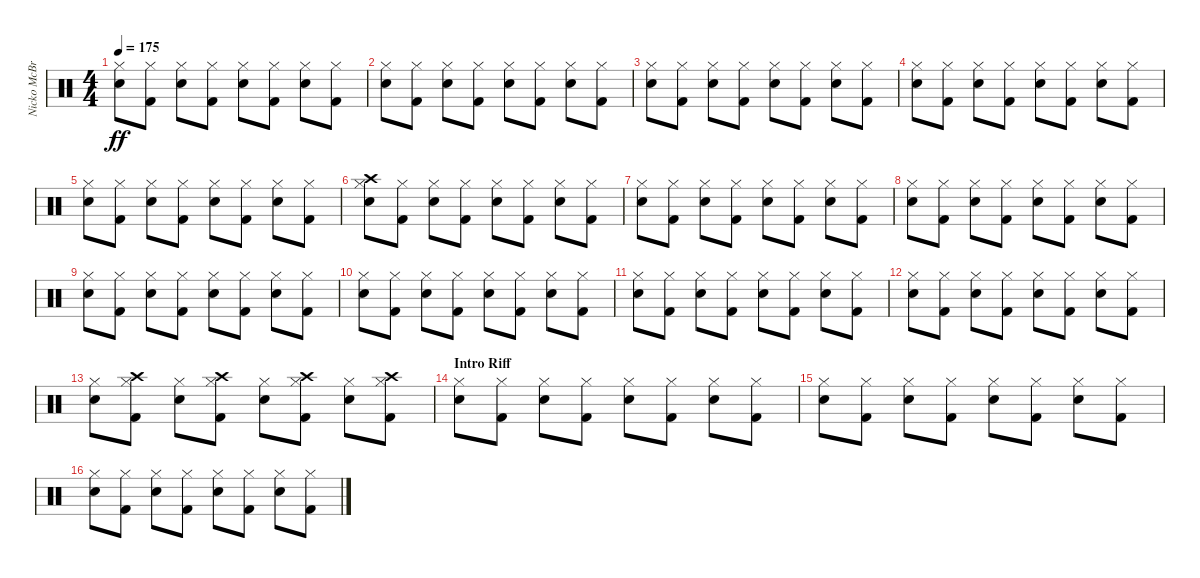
\track ("Nicko McBrain" "Nicko McBr") {instrument percussion}
\staff {score}
\articulation defaults
\ts (4 4)
\tempo 175
\clef neutral
\ks c
("Snare (hit) 2" "Hi-Hat (closed)").8{dy ff} ("Kick (hit) 2" "Hi-Hat (closed)").8 ("Snare (hit) 2" "Hi-Hat (closed)").8 ("Kick (hit) 2" "Hi-Hat (closed)").8 ("Snare (hit) 2" "Hi-Hat (closed)").8 ("Kick (hit) 2" "Hi-Hat (closed)").8 ("Snare (hit) 2" "Hi-Hat (closed)").8 ("Kick (hit) 2" "Hi-Hat (closed)").8 |
("Snare (hit) 2" "Hi-Hat (closed)").8 ("Kick (hit) 2" "Hi-Hat (closed)").8 ("Snare (hit) 2" "Hi-Hat (closed)").8 ("Kick (hit) 2" "Hi-Hat (closed)").8 ("Snare (hit) 2" "Hi-Hat (closed)").8 ("Kick (hit) 2" "Hi-Hat (closed)").8 ("Snare (hit) 2" "Hi-Hat (closed)").8 ("Kick (hit) 2" "Hi-Hat (closed)").8 |
("Snare (hit) 2" "Hi-Hat (closed)").8 ("Kick (hit) 2" "Hi-Hat (closed)").8 ("Snare (hit) 2" "Hi-Hat (closed)").8 ("Kick (hit) 2" "Hi-Hat (closed)").8 ("Snare (hit) 2" "Hi-Hat (closed)").8 ("Kick (hit) 2" "Hi-Hat (closed)").8 ("Snare (hit) 2" "Hi-Hat (closed)").8 ("Kick (hit) 2" "Hi-Hat (closed)").8 |
("Snare (hit) 2" "Hi-Hat (closed)").8 ("Kick (hit) 2" "Hi-Hat (closed)").8 ("Snare (hit) 2" "Hi-Hat (closed)").8 ("Kick (hit) 2" "Hi-Hat (closed)").8 ("Snare (hit) 2" "Hi-Hat (closed)").8 ("Kick (hit) 2" "Hi-Hat (closed)").8 ("Snare (hit) 2" "Hi-Hat (closed)").8 ("Kick (hit) 2" "Hi-Hat (closed)").8 |
("Snare (hit) 2" "Hi-Hat (closed)").8 ("Kick (hit) 2" "Hi-Hat (closed)").8 ("Snare (hit) 2" "Hi-Hat (closed)").8 ("Kick (hit) 2" "Hi-Hat (closed)").8 ("Snare (hit) 2" "Hi-Hat (closed)").8 ("Kick (hit) 2" "Hi-Hat (closed)").8 ("Snare (hit) 2" "Hi-Hat (closed)").8 ("Kick (hit) 2" "Hi-Hat (closed)").8 |
("Snare (hit) 2" "Hi-Hat (closed)" "Crash high (hit)").8 ("Kick (hit) 2" "Hi-Hat (closed)").8 ("Snare (hit) 2" "Hi-Hat (closed)").8 ("Kick (hit) 2" "Hi-Hat (closed)").8 ("Snare (hit) 2" "Hi-Hat (closed)").8 ("Kick (hit) 2" "Hi-Hat (closed)").8 ("Snare (hit) 2" "Hi-Hat (closed)").8 ("Kick (hit) 2" "Hi-Hat (closed)").8 |
("Snare (hit) 2" "Hi-Hat (closed)").8 ("Kick (hit) 2" "Hi-Hat (closed)").8 ("Snare (hit) 2" "Hi-Hat (closed)").8 ("Kick (hit) 2" "Hi-Hat (closed)").8 ("Snare (hit) 2" "Hi-Hat (closed)").8 ("Kick (hit) 2" "Hi-Hat (closed)").8 ("Snare (hit) 2" "Hi-Hat (closed)").8 ("Kick (hit) 2" "Hi-Hat (closed)").8 |
("Snare (hit) 2" "Hi-Hat (closed)").8 ("Kick (hit) 2" "Hi-Hat (closed)").8 ("Snare (hit) 2" "Hi-Hat (closed)").8 ("Kick (hit) 2" "Hi-Hat (closed)").8 ("Snare (hit) 2" "Hi-Hat (closed)").8 ("Kick (hit) 2" "Hi-Hat (closed)").8 ("Snare (hit) 2" "Hi-Hat (closed)").8 ("Kick (hit) 2" "Hi-Hat (closed)").8 |
("Snare (hit) 2" "Hi-Hat (closed)").8 ("Kick (hit) 2" "Hi-Hat (closed)").8 ("Snare (hit) 2" "Hi-Hat (closed)").8 ("Kick (hit) 2" "Hi-Hat (closed)").8 ("Snare (hit) 2" "Hi-Hat (closed)").8 ("Kick (hit) 2" "Hi-Hat (closed)").8 ("Snare (hit) 2" "Hi-Hat (closed)").8 ("Kick (hit) 2" "Hi-Hat (closed)").8 |
("Snare (hit) 2" "Hi-Hat (closed)").8 ("Kick (hit) 2" "Hi-Hat (closed)").8 ("Snare (hit) 2" "Hi-Hat (closed)").8 ("Kick (hit) 2" "Hi-Hat (closed)").8 ("Snare (hit) 2" "Hi-Hat (closed)").8 ("Kick (hit) 2" "Hi-Hat (closed)").8 ("Snare (hit) 2" "Hi-Hat (closed)").8 ("Kick (hit) 2" "Hi-Hat (closed)").8 |
("Snare (hit) 2" "Hi-Hat (closed)").8 ("Kick (hit) 2" "Hi-Hat (closed)").8 ("Snare (hit) 2" "Hi-Hat (closed)").8 ("Kick (hit) 2" "Hi-Hat (closed)").8 ("Snare (hit) 2" "Hi-Hat (closed)").8 ("Kick (hit) 2" "Hi-Hat (closed)").8 ("Snare (hit) 2" "Hi-Hat (closed)").8 ("Kick (hit) 2" "Hi-Hat (closed)").8 |
("Snare (hit) 2" "Hi-Hat (closed)").8 ("Kick (hit) 2" "Hi-Hat (closed)").8 ("Snare (hit) 2" "Hi-Hat (closed)").8 ("Kick (hit) 2" "Hi-Hat (closed)").8 ("Snare (hit) 2" "Hi-Hat (closed)").8 ("Kick (hit) 2" "Hi-Hat (closed)").8 ("Snare (hit) 2" "Hi-Hat (closed)").8 ("Kick (hit) 2" "Hi-Hat (closed)").8 |
("Snare (hit) 2" "Hi-Hat (closed)").8 ("Kick (hit) 2" "Hi-Hat (closed)" "Crash high (hit)").8 ("Snare (hit) 2" "Hi-Hat (closed)").8 ("Kick (hit) 2" "Hi-Hat (closed)" "Crash high (hit)").8 ("Snare (hit) 2" "Hi-Hat (closed)").8 ("Kick (hit) 2" "Hi-Hat (closed)" "Crash high (hit)").8 ("Snare (hit) 2" "Hi-Hat (closed)").8 ("Kick (hit) 2" "Hi-Hat (closed)" "Crash high (hit)").8 |
\section ("" "Intro Riff")
("Snare (hit) 2" "Hi-Hat (closed)").8 ("Kick (hit) 2" "Hi-Hat (closed)").8 ("Snare (hit) 2" "Hi-Hat (closed)").8 ("Kick (hit) 2" "Hi-Hat (closed)").8 ("Snare (hit) 2" "Hi-Hat (closed)").8 ("Kick (hit) 2" "Hi-Hat (closed)").8 ("Snare (hit) 2" "Hi-Hat (closed)").8 ("Kick (hit) 2" "Hi-Hat (closed)").8 |
("Snare (hit) 2" "Hi-Hat (closed)").8 ("Kick (hit) 2" "Hi-Hat (closed)").8 ("Snare (hit) 2" "Hi-Hat (closed)").8 ("Kick (hit) 2" "Hi-Hat (closed)").8 ("Snare (hit) 2" "Hi-Hat (closed)").8 ("Kick (hit) 2" "Hi-Hat (closed)").8 ("Snare (hit) 2" "Hi-Hat (closed)").8 ("Kick (hit) 2" "Hi-Hat (closed)").8 |
("Snare (hit) 2" "Hi-Hat (closed)").8 ("Kick (hit) 2" "Hi-Hat (closed)").8 ("Snare (hit) 2" "Hi-Hat (closed)").8 ("Kick (hit) 2" "Hi-Hat (closed)").8 ("Snare (hit) 2" "Hi-Hat (closed)").8 ("Kick (hit) 2" "Hi-Hat (closed)").8 ("Snare (hit) 2" "Hi-Hat (closed)").8 ("Kick (hit) 2" "Hi-Hat (closed)").8
